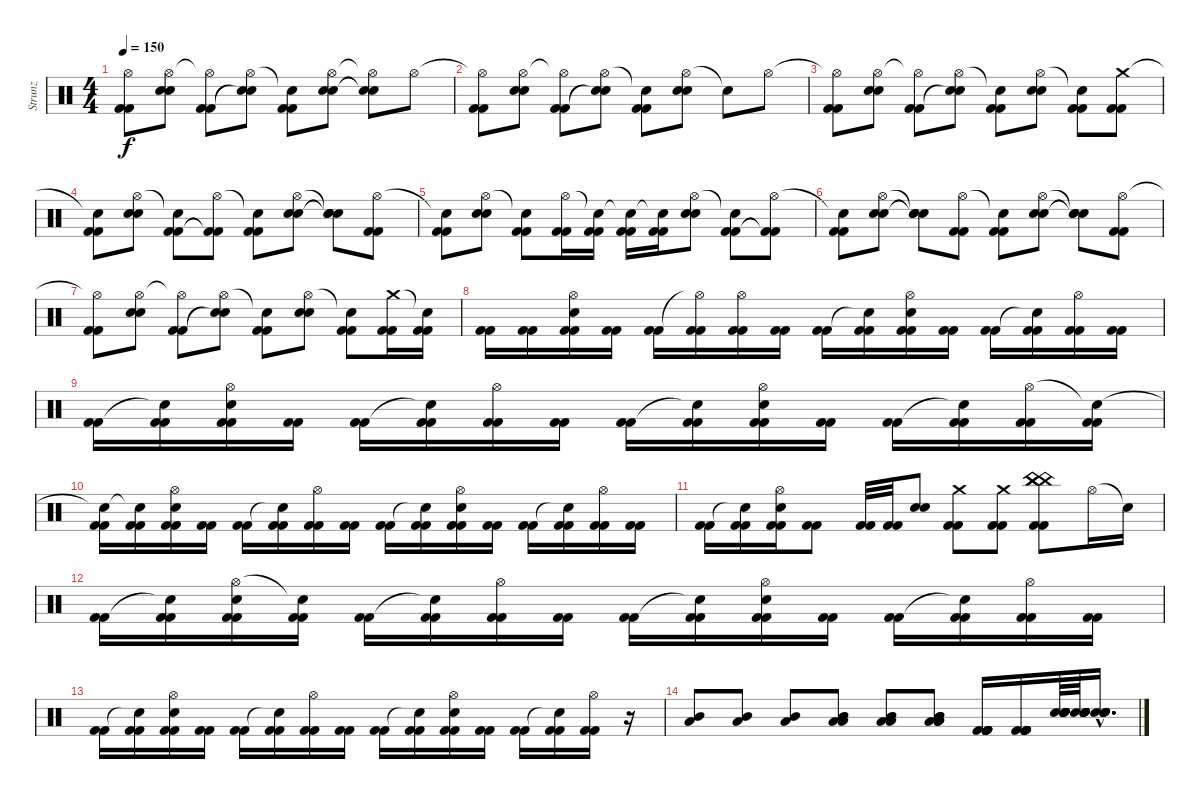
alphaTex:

\track ("Strunz" "Strunz") {instrument percussion}
\staff {score}
\articulation defaults
\ts (4 4)
\tempo 150
\clef neutral
\ks c
("Hi-Hat (open)"{t} "Kick (hit) 2" "Kick (hit) 2").8{dy f} ("Hi-Hat (open)" "Snare (hit) 2" "Snare (hit) 2").8 ("Hi-Hat (open)"{t} "Kick (hit) 2" "Kick (hit) 2").8 ("Hi-Hat (open)" "Snare (hit)"{t} "Snare (hit)"{t}).8 ("Snare (hit)"{t} "Kick (hit) 2" "Kick (hit) 2").8 ("Hi-Hat (open)" "Snare (hit) 2" "Snare (hit) 2").8 ("Hi-Hat (open)"{t} "Snare (hit)"{t} "Snare (hit)"{t}).8 "Hi-Hat (open)".8 |
("Hi-Hat (open)"{t} "Kick (hit) 2" "Kick (hit) 2").8 ("Hi-Hat (open)" "Snare (hit) 2" "Snare (hit) 2").8 ("Hi-Hat (open)"{t} "Kick (hit) 2" "Kick (hit) 2").8 ("Hi-Hat (open)" "Snare (hit)"{t} "Snare (hit)"{t}).8 ("Snare (hit)"{t} "Kick (hit) 2" "Kick (hit) 2").8 ("Hi-Hat (open)" "Snare (hit) 2" "Snare (hit) 2").8 "Snare (hit)"{t}.8 "Hi-Hat (open)".8 |
("Hi-Hat (open)"{t} "Kick (hit) 2" "Kick (hit) 2").8 ("Hi-Hat (open)" "Snare (hit) 2" "Snare (hit) 2").8 ("Hi-Hat (open)"{t} "Kick (hit) 2" "Kick (hit) 2").8 ("Hi-Hat (open)" "Snare (hit)"{t} "Snare (hit)"{t}).8 ("Snare (hit)"{t} "Kick (hit) 2" "Kick (hit) 2").8 ("Hi-Hat (open)" "Snare (hit) 2" "Snare (hit) 2").8 ("Snare (hit)"{t} "Kick (hit) 2" "Kick (hit) 2").8 ("Crash medium (hit)" "Kick (hit) 2" "Kick (hit) 2").8 |
("Snare (hit)"{t} "Kick (hit) 2" "Kick (hit) 2").8 ("Hi-Hat (open)" "Snare (hit) 2" "Snare (hit) 2").8 ("Snare (hit)"{t} "Kick (hit) 2" "Kick (hit) 2").8 ("Hi-Hat (open)" "Kick (hit) 2"{t} "Kick (hit) 2"{t}).8 ("Snare (hit)"{t} "Kick (hit) 2" "Kick (hit) 2").8 ("Hi-Hat (open)" "Snare (hit) 2" "Snare (hit) 2").8 ("Snare (hit)"{t} "Snare (hit) 2"{t} "Snare (hit) 2"{t}).8 ("Hi-Hat (open)" "Kick (hit) 2" "Kick (hit) 2").8 |
("Snare (hit)"{t} "Kick (hit) 2" "Kick (hit) 2").8 ("Hi-Hat (open)" "Snare (hit) 2" "Snare (hit) 2").8 ("Snare (hit)"{t} "Kick (hit) 2" "Kick (hit) 2").8 ("Hi-Hat (open)" "Kick (hit) 2" "Kick (hit) 2").16 ("Snare (hit)"{t} "Kick (hit) 2" "Kick (hit) 2").16 ("Snare (hit)"{t} "Kick (hit) 2" "Kick (hit) 2").16 ("Snare (hit)"{t} "Kick (hit) 2" "Kick (hit) 2").16 ("Hi-Hat (open)" "Snare (hit) 2" "Snare (hit) 2").8 ("Snare (hit)"{t} "Kick (hit) 2" "Kick (hit) 2").8 ("Hi-Hat (open)" "Kick (hit) 2"{t} "Kick (hit) 2"{t}).8 |
("Snare (hit)"{t} "Kick (hit) 2" "Kick (hit) 2").8 ("Hi-Hat (open)" "Snare (hit) 2" "Snare (hit) 2").8 ("Snare (hit)"{t} "Snare (hit) 2"{t} "Snare (hit) 2"{t}).8 ("Hi-Hat (open)" "Kick (hit) 2" "Kick (hit) 2").8 ("Snare (hit)"{t} "Kick (hit) 2" "Kick (hit) 2").8 ("Hi-Hat (open)" "Snare (hit) 2" "Snare (hit) 2").8 ("Snare (hit)"{t} "Snare (hit)"{t} "Snare (hit)"{t}).8 ("Hi-Hat (open)" "Kick (hit) 2" "Kick (hit) 2").8 |
("Hi-Hat (open)"{t} "Kick (hit) 2" "Kick (hit) 2").8 ("Hi-Hat (open)" "Snare (hit) 2" "Snare (hit) 2").8 ("Hi-Hat (open)"{t} "Kick (hit) 2" "Kick (hit) 2").8 ("Hi-Hat (open)" "Snare (hit)"{t} "Snare (hit)"{t}).8 ("Snare (hit)"{t} "Kick (hit) 2" "Kick (hit) 2").8 ("Hi-Hat (open)" "Snare (hit) 2" "Snare (hit) 2").8 ("Snare (hit)"{t} "Kick (hit) 2" "Kick (hit) 2").8 ("Crash medium (hit)" "Kick (hit) 2" "Kick (hit) 2").16 ("Snare (hit)"{t} "Kick (hit) 2" "Kick (hit) 2").16 |
("Kick (hit) 2" "Kick (hit) 2").16 ("Kick (hit) 2" "Kick (hit) 2").16 ("Hi-Hat (open)" "Snare (hit) 2" "Kick (hit) 2" "Kick (hit) 2").16 ("Kick (hit) 2" "Kick (hit) 2").16 ("Kick (hit) 2" "Kick (hit) 2").16 ("Hi-Hat (open)"{t} "Kick (hit) 2" "Kick (hit) 2").16 ("Hi-Hat (open)" "Kick (hit) 2" "Kick (hit) 2").16 ("Kick (hit) 2" "Kick (hit) 2").16 ("Kick (hit) 2" "Kick (hit) 2").16 ("Snare (hit)"{t} "Kick (hit) 2" "Kick (hit) 2").16 ("Hi-Hat (open)" "Snare (hit) 2" "Kick (hit) 2" "Kick (hit) 2").16 ("Kick (hit) 2" "Kick (hit) 2").16 ("Kick (hit) 2" "Kick (hit) 2").16 ("Snare (hit)"{t} "Kick (hit) 2" "Kick (hit) 2").16 ("Hi-Hat (open)" "Kick (hit) 2" "Kick (hit) 2").16 ("Kick (hit) 2" "Kick (hit) 2").16 |
("Kick (hit) 2" "Kick (hit) 2").16 ("Snare (hit)"{t} "Kick (hit) 2" "Kick (hit) 2").16 ("Hi-Hat (open)" "Snare (hit) 2" "Kick (hit) 2" "Kick (hit) 2").16 ("Kick (hit) 2" "Kick (hit) 2").16 ("Kick (hit) 2" "Kick (hit) 2").16 ("Snare (hit)"{t} "Kick (hit) 2" "Kick (hit) 2").16 ("Hi-Hat (open)" "Kick (hit) 2" "Kick (hit) 2").16 ("Kick (hit) 2" "Kick (hit) 2").16 ("Kick (hit) 2" "Kick (hit) 2").16 ("Snare (hit)"{t} "Kick (hit) 2" "Kick (hit) 2").16 ("Hi-Hat (open)" "Snare (hit) 2" "Kick (hit) 2" "Kick (hit) 2").16 ("Kick (hit) 2" "Kick (hit) 2").16 ("Kick (hit) 2" "Kick (hit) 2").16 ("Snare (hit)"{t} "Kick (hit) 2" "Kick (hit) 2").16 ("Hi-Hat (open)" "Kick (hit) 2" "Kick (hit) 2").16 ("Snare (hit)"{t} "Kick (hit) 2" "Kick (hit) 2").16 |
("Snare (hit)"{t} "Kick (hit) 2" "Kick (hit) 2").16 ("Snare (hit)"{t} "Kick (hit) 2" "Kick (hit) 2").16 ("Hi-Hat (open)" "Snare (hit) 2" "Kick (hit) 2" "Kick (hit) 2").16 ("Kick (hit) 2" "Kick (hit) 2").16 ("Kick (hit) 2" "Kick (hit) 2").16 ("Snare (hit)"{t} "Kick (hit) 2" "Kick (hit) 2").16 ("Hi-Hat (open)" "Kick (hit) 2" "Kick (hit) 2").16 ("Kick (hit) 2" "Kick (hit) 2").16 ("Kick (hit) 2" "Kick (hit) 2").16 ("Snare (hit)"{t} "Kick (hit) 2" "Kick (hit) 2").16 ("Hi-Hat (open)" "Snare (hit) 2" "Kick (hit) 2" "Kick (hit) 2").16 ("Kick (hit) 2" "Kick (hit) 2").16 ("Kick (hit) 2" "Kick (hit) 2").16 ("Snare (hit)"{t} "Kick (hit) 2" "Kick (hit) 2").16 ("Hi-Hat (open)" "Kick (hit) 2" "Kick (hit) 2").16 ("Kick (hit) 2" "Kick (hit) 2").16 |
("Kick (hit) 2" "Kick (hit) 2").16 ("Snare (hit)"{t} "Kick (hit) 2" "Kick (hit) 2").16 ("Hi-Hat (open)" "Snare (hit) 2" "Kick (hit) 2" "Kick (hit) 2").16 ("Kick (hit) 2" "Kick (hit) 2").8 ("Kick (hit) 2" "Kick (hit) 2").32 ("Kick (hit) 2" "Kick (hit) 2").32 ("Snare (hit) 2" "Snare (hit) 2").8 ("Crash medium (hit)" "Kick (hit) 2" "Kick (hit) 2").8 ("Crash medium (hit)" "Kick (hit) 2" "Kick (hit) 2").8 ("China (hit)" "China (hit)" "China (hit)" "Kick (hit) 2" "Kick (hit) 2").8 "Hi-Hat (open)".16 "Snare (hit)"{t}.16 |
("Kick (hit) 2" "Kick (hit) 2").16 ("Snare (hit)"{t} "Kick (hit) 2" "Kick (hit) 2").16 ("Hi-Hat (open)" "Snare (hit) 2" "Kick (hit) 2" "Kick (hit) 2").16 ("Snare (hit)"{t} "Kick (hit) 2" "Kick (hit) 2").16 ("Kick (hit) 2" "Kick (hit) 2").16 ("Snare (hit)"{t} "Kick (hit) 2" "Kick (hit) 2").16 ("Hi-Hat (open)" "Kick (hit) 2" "Kick (hit) 2").16 ("Kick (hit) 2" "Kick (hit) 2").16 ("Kick (hit) 2" "Kick (hit) 2").16 ("Snare (hit)"{t} "Kick (hit) 2" "Kick (hit) 2").16 ("Hi-Hat (open)" "Snare (hit) 2" "Kick (hit) 2" "Kick (hit) 2").16 ("Kick (hit) 2" "Kick (hit) 2").16 ("Kick (hit) 2" "Kick (hit) 2").16 ("Snare (hit)"{t} "Kick (hit) 2" "Kick (hit) 2").16 ("Hi-Hat (open)" "Kick (hit) 2" "Kick (hit) 2").16 ("Kick (hit) 2" "Kick (hit) 2").16 |
("Kick (hit) 2" "Kick (hit) 2").16 ("Snare (hit)"{t} "Kick (hit) 2" "Kick (hit) 2").16 ("Hi-Hat (open)" "Snare (hit) 2" "Kick (hit) 2" "Kick (hit) 2").16 ("Kick (hit) 2" "Kick (hit) 2").16 ("Kick (hit) 2" "Kick (hit) 2").16 ("Snare (hit)"{t} "Kick (hit) 2" "Kick (hit) 2").16 ("Hi-Hat (open)" "Kick (hit) 2" "Kick (hit) 2").16 ("Kick (hit) 2" "Kick (hit) 2").16 ("Kick (hit) 2" "Kick (hit) 2").16 ("Snare (hit)"{t} "Kick (hit) 2" "Kick (hit) 2").16 ("Hi-Hat (open)" "Snare (hit) 2" "Kick (hit) 2" "Kick (hit) 2").16 ("Kick (hit) 2" "Kick (hit) 2").16 ("Kick (hit) 2" "Kick (hit) 2").16 ("Snare (hit)"{t} "Kick (hit) 2" "Kick (hit) 2").16 ("Hi-Hat (open)" "Kick (hit) 2" "Kick (hit) 2").16 r.16 |
("Mid Tom (hit)" "Low Tom (hit)").8 ("Mid Tom (hit)" "Low Tom (hit)").8 ("Mid Tom (hit)" "Low Tom (hit)").8 ("Low Tom (hit)" "Low Tom (hit)" "Mid Tom (hit)" "Mid Tom (hit)").8 ("Low Tom (hit)" "Low Tom (hit)" "Mid Tom (hit)" "Mid Tom (hit)").8 ("Low Tom (hit)" "Low Tom (hit)" "Low Tom (hit)" "Mid Tom (hit)" "Mid Tom (hit)" "Mid Tom (hit)").8 ("Kick (hit) 2" "Kick (hit) 2" "Kick (hit) 2" "Kick (hit) 2" "Kick (hit) 2" "Kick (hit) 2").16 ("Kick (hit) 2" "Kick (hit) 2" "Kick (hit) 2" "Kick (hit) 2" "Kick (hit) 2" "Kick (hit) 2").16 ("Snare (hit) 2" "Snare (hit) 2" "Snare (hit) 2" "Snare (hit) 2" "Snare (hit) 2" "Snare (hit) 2").64 ("Snare (hit) 2" "Snare (hit) 2" "Snare (hit) 2" "Snare (hit) 2" "Snare (hit) 2" "Snare (hit) 2").64 ("Snare (hit)"{hac t} "Snare (hit)"{hac t} "Snare (hit)"{hac t} "Snare (hit)"{hac t} "Snare (hit)"{hac t} "Snare (hit)"{hac t}).16{d}
